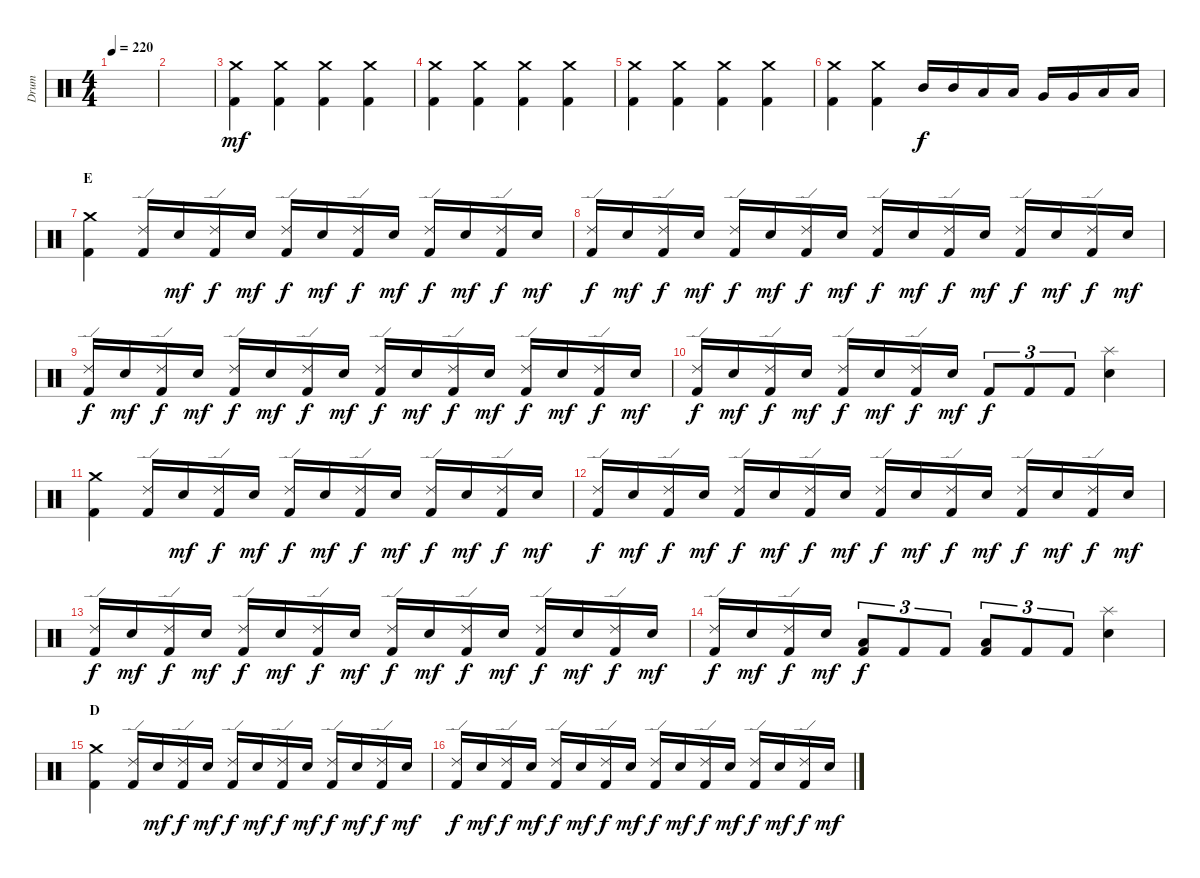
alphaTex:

\track ("Drum" "Drum") {instrument percussion}
\staff {score}
\articulation defaults
\ts (4 4)
\tempo 220
\clef neutral
\ks c
|
|
("Crash medium (hit)" "Kick (hit) 2").4{dy mf} ("Crash medium (hit)" "Kick (hit) 2").4 ("Crash medium (hit)" "Kick (hit) 2").4 ("Crash medium (hit)" "Kick (hit) 2").4 |
("Crash medium (hit)" "Kick (hit) 2").4 ("Crash medium (hit)" "Kick (hit) 2").4 ("Crash medium (hit)" "Kick (hit) 2").4 ("Crash medium (hit)" "Kick (hit) 2").4 |
("Crash medium (hit)" "Kick (hit) 2").4 ("Crash medium (hit)" "Kick (hit) 2").4 ("Crash medium (hit)" "Kick (hit) 2").4 ("Crash medium (hit)" "Kick (hit) 2").4 |
("Crash medium (hit)" "Kick (hit) 2").4 ("Crash medium (hit)" "Kick (hit) 2").4 "Mid Tom (hit)".16{dy f} "Mid Tom (hit)".16 "Low Tom (hit)".16 "Low Tom (hit)".16 "Very Low Tom (hit)".16 "Very Low Tom (hit)".16 "Low Floor Tom (hit)".16 "Low Floor Tom (hit)".16 |
\section ("" "E")
("Crash medium (hit)" "Kick (hit) 2").4 ("Ride (edge) 2" "Kick (hit) 2").16 "Electric Snare (hit)".16{dy mf} ("Ride (edge) 2" "Kick (hit) 2").16{dy f} "Electric Snare (hit)".16{dy mf} ("Ride (edge) 2" "Kick (hit) 2").16{dy f} "Electric Snare (hit)".16{dy mf} ("Ride (edge) 2" "Kick (hit) 2").16{dy f} "Electric Snare (hit)".16{dy mf} ("Ride (edge) 2" "Kick (hit) 2").16{dy f} "Electric Snare (hit)".16{dy mf} ("Ride (edge) 2" "Kick (hit) 2").16{dy f} "Electric Snare (hit)".16{dy mf} |
("Ride (edge) 2" "Kick (hit) 2").16{dy f} "Electric Snare (hit)".16{dy mf} ("Ride (edge) 2" "Kick (hit) 2").16{dy f} "Electric Snare (hit)".16{dy mf} ("Ride (edge) 2" "Kick (hit) 2").16{dy f} "Electric Snare (hit)".16{dy mf} ("Ride (edge) 2" "Kick (hit) 2").16{dy f} "Electric Snare (hit)".16{dy mf} ("Ride (edge) 2" "Kick (hit) 2").16{dy f} "Electric Snare (hit)".16{dy mf} ("Ride (edge) 2" "Kick (hit) 2").16{dy f} "Electric Snare (hit)".16{dy mf} ("Ride (edge) 2" "Kick (hit) 2").16{dy f} "Electric Snare (hit)".16{dy mf} ("Ride (edge) 2" "Kick (hit) 2").16{dy f} "Electric Snare (hit)".16{dy mf} |
("Ride (edge) 2" "Kick (hit) 2").16{dy f} "Electric Snare (hit)".16{dy mf} ("Ride (edge) 2" "Kick (hit) 2").16{dy f} "Electric Snare (hit)".16{dy mf} ("Ride (edge) 2" "Kick (hit) 2").16{dy f} "Electric Snare (hit)".16{dy mf} ("Ride (edge) 2" "Kick (hit) 2").16{dy f} "Electric Snare (hit)".16{dy mf} ("Ride (edge) 2" "Kick (hit) 2").16{dy f} "Electric Snare (hit)".16{dy mf} ("Ride (edge) 2" "Kick (hit) 2").16{dy f} "Electric Snare (hit)".16{dy mf} ("Ride (edge) 2" "Kick (hit) 2").16{dy f} "Electric Snare (hit)".16{dy mf} ("Ride (edge) 2" "Kick (hit) 2").16{dy f} "Electric Snare (hit)".16{dy mf} |
("Ride (edge) 2" "Kick (hit) 2").16{dy f} "Electric Snare (hit)".16{dy mf} ("Ride (edge) 2" "Kick (hit) 2").16{dy f} "Electric Snare (hit)".16{dy mf} ("Ride (edge) 2" "Kick (hit) 2").16{dy f} "Electric Snare (hit)".16{dy mf} ("Ride (edge) 2" "Kick (hit) 2").16{dy f} "Electric Snare (hit)".16{dy mf} "Kick (hit) 2".8{tu (3 2) dy f} "Kick (hit) 2".8{tu (3 2)} "Kick (hit) 2".8{tu (3 2)} ("Splash (hit)" "Electric Snare (hit)").4 |
("Crash medium (hit)" "Kick (hit) 2").4 ("Ride (edge) 2" "Kick (hit) 2").16 "Electric Snare (hit)".16{dy mf} ("Ride (edge) 2" "Kick (hit) 2").16{dy f} "Electric Snare (hit)".16{dy mf} ("Ride (edge) 2" "Kick (hit) 2").16{dy f} "Electric Snare (hit)".16{dy mf} ("Ride (edge) 2" "Kick (hit) 2").16{dy f} "Electric Snare (hit)".16{dy mf} ("Ride (edge) 2" "Kick (hit) 2").16{dy f} "Electric Snare (hit)".16{dy mf} ("Ride (edge) 2" "Kick (hit) 2").16{dy f} "Electric Snare (hit)".16{dy mf} |
("Ride (edge) 2" "Kick (hit) 2").16{dy f} "Electric Snare (hit)".16{dy mf} ("Ride (edge) 2" "Kick (hit) 2").16{dy f} "Electric Snare (hit)".16{dy mf} ("Ride (edge) 2" "Kick (hit) 2").16{dy f} "Electric Snare (hit)".16{dy mf} ("Ride (edge) 2" "Kick (hit) 2").16{dy f} "Electric Snare (hit)".16{dy mf} ("Ride (edge) 2" "Kick (hit) 2").16{dy f} "Electric Snare (hit)".16{dy mf} ("Ride (edge) 2" "Kick (hit) 2").16{dy f} "Electric Snare (hit)".16{dy mf} ("Ride (edge) 2" "Kick (hit) 2").16{dy f} "Electric Snare (hit)".16{dy mf} ("Ride (edge) 2" "Kick (hit) 2").16{dy f} "Electric Snare (hit)".16{dy mf} |
("Ride (edge) 2" "Kick (hit) 2").16{dy f} "Electric Snare (hit)".16{dy mf} ("Ride (edge) 2" "Kick (hit) 2").16{dy f} "Electric Snare (hit)".16{dy mf} ("Ride (edge) 2" "Kick (hit) 2").16{dy f} "Electric Snare (hit)".16{dy mf} ("Ride (edge) 2" "Kick (hit) 2").16{dy f} "Electric Snare (hit)".16{dy mf} ("Ride (edge) 2" "Kick (hit) 2").16{dy f} "Electric Snare (hit)".16{dy mf} ("Ride (edge) 2" "Kick (hit) 2").16{dy f} "Electric Snare (hit)".16{dy mf} ("Ride (edge) 2" "Kick (hit) 2").16{dy f} "Electric Snare (hit)".16{dy mf} ("Ride (edge) 2" "Kick (hit) 2").16{dy f} "Electric Snare (hit)".16{dy mf} |
("Ride (edge) 2" "Kick (hit) 2").16{dy f} "Electric Snare (hit)".16{dy mf} ("Ride (edge) 2" "Kick (hit) 2").16{dy f} "Electric Snare (hit)".16{dy mf} ("Low Tom (hit)" "Kick (hit) 2").8{tu (3 2) dy f} "Kick (hit) 2".8{tu (3 2)} "Kick (hit) 2".8{tu (3 2)} ("Low Tom (hit)" "Kick (hit) 2").8{tu (3 2)} "Kick (hit) 2".8{tu (3 2)} "Kick (hit) 2".8{tu (3 2)} ("Splash (hit)" "Electric Snare (hit)").4 |
\section ("" "D")
("Crash medium (hit)" "Kick (hit) 2").4 ("Ride (edge) 2" "Kick (hit) 2").16 "Electric Snare (hit)".16{dy mf} ("Ride (edge) 2" "Kick (hit) 2").16{dy f} "Electric Snare (hit)".16{dy mf} ("Ride (edge) 2" "Kick (hit) 2").16{dy f} "Electric Snare (hit)".16{dy mf} ("Ride (edge) 2" "Kick (hit) 2").16{dy f} "Electric Snare (hit)".16{dy mf} ("Ride (edge) 2" "Kick (hit) 2").16{dy f} "Electric Snare (hit)".16{dy mf} ("Ride (edge) 2" "Kick (hit) 2").16{dy f} "Electric Snare (hit)".16{dy mf} |
("Ride (edge) 2" "Kick (hit) 2").16{dy f} "Electric Snare (hit)".16{dy mf} ("Ride (edge) 2" "Kick (hit) 2").16{dy f} "Electric Snare (hit)".16{dy mf} ("Ride (edge) 2" "Kick (hit) 2").16{dy f} "Electric Snare (hit)".16{dy mf} ("Ride (edge) 2" "Kick (hit) 2").16{dy f} "Electric Snare (hit)".16{dy mf} ("Ride (edge) 2" "Kick (hit) 2").16{dy f} "Electric Snare (hit)".16{dy mf} ("Ride (edge) 2" "Kick (hit) 2").16{dy f} "Electric Snare (hit)".16{dy mf} ("Ride (edge) 2" "Kick (hit) 2").16{dy f} "Electric Snare (hit)".16{dy mf} ("Ride (edge) 2" "Kick (hit) 2").16{dy f} "Electric Snare (hit)".16{dy mf}
